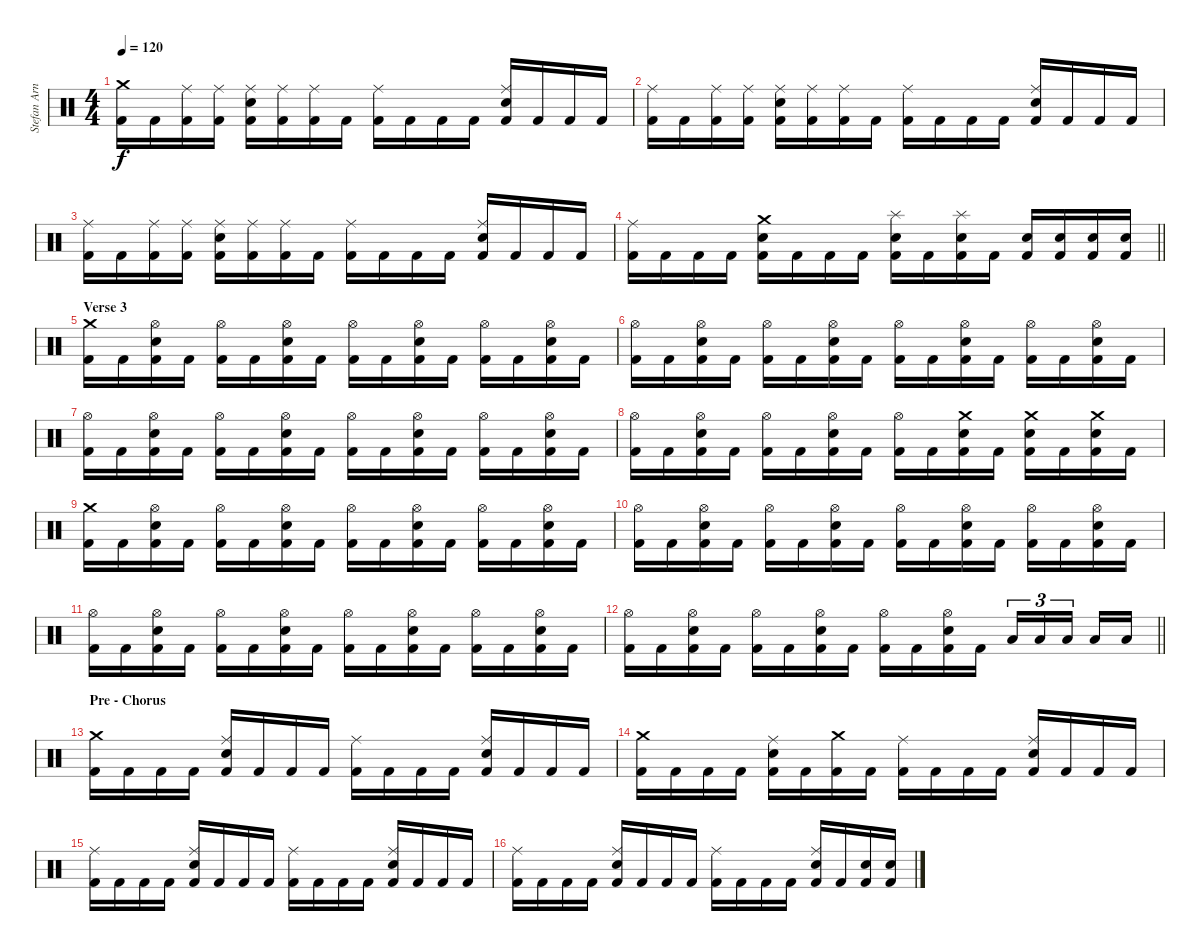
\track ("Stefan Arnold" "Stefan Arn") {instrument percussion}
\staff {score}
\articulation defaults
\ts (4 4)
\tempo 120
\clef neutral
\ks c
("Crash medium (hit)" "Kick (hit) 2").16{dy f} "Kick (hit) 2".16 ("Ride (middle)" "Kick (hit) 2").16 ("Ride (middle)" "Kick (hit) 2").16 ("Ride (middle)" "Electric Snare (hit)" "Kick (hit) 2").16 ("Ride (middle)" "Kick (hit) 2").16 ("Ride (middle)" "Kick (hit) 2").16 "Kick (hit) 2".16 ("Ride (middle)" "Kick (hit) 2").16 "Kick (hit) 2".16 "Kick (hit) 2".16 "Kick (hit) 2".16 ("Ride (middle)" "Electric Snare (hit)" "Kick (hit) 2").16 "Kick (hit) 2".16 "Kick (hit) 2".16 "Kick (hit) 2".16 |
("Ride (middle)" "Kick (hit) 2").16 "Kick (hit) 2".16 ("Ride (middle)" "Kick (hit) 2").16 ("Ride (middle)" "Kick (hit) 2").16 ("Ride (middle)" "Electric Snare (hit)" "Kick (hit) 2").16 ("Ride (middle)" "Kick (hit) 2").16 ("Ride (middle)" "Kick (hit) 2").16 "Kick (hit) 2".16 ("Ride (middle)" "Kick (hit) 2").16 "Kick (hit) 2".16 "Kick (hit) 2".16 "Kick (hit) 2".16 ("Ride (middle)" "Electric Snare (hit)" "Kick (hit) 2").16 "Kick (hit) 2".16 "Kick (hit) 2".16 "Kick (hit) 2".16 |
("Ride (middle)" "Kick (hit) 2").16 "Kick (hit) 2".16 ("Ride (middle)" "Kick (hit) 2").16 ("Ride (middle)" "Kick (hit) 2").16 ("Ride (middle)" "Electric Snare (hit)" "Kick (hit) 2").16 ("Ride (middle)" "Kick (hit) 2").16 ("Ride (middle)" "Kick (hit) 2").16 "Kick (hit) 2".16 ("Ride (middle)" "Kick (hit) 2").16 "Kick (hit) 2".16 "Kick (hit) 2".16 "Kick (hit) 2".16 ("Ride (middle)" "Electric Snare (hit)" "Kick (hit) 2").16 "Kick (hit) 2".16 "Kick (hit) 2".16 "Kick (hit) 2".16 |
\barLineRight lightlight
("Ride (middle)" "Kick (hit) 2").16 "Kick (hit) 2".16 "Kick (hit) 2".16 "Kick (hit) 2".16 ("Crash medium (hit)" "Electric Snare (hit)" "Kick (hit) 2").16 "Kick (hit) 2".16 "Kick (hit) 2".16 "Kick (hit) 2".16 ("Splash (hit)" "Electric Snare (hit)" "Kick (hit) 2").16 "Kick (hit) 2".16 ("Splash (hit)" "Electric Snare (hit)" "Kick (hit) 2").16 "Kick (hit) 2".16 ("Electric Snare (hit)" "Kick (hit) 2").16 ("Electric Snare (hit)" "Kick (hit) 2").16 ("Electric Snare (hit)" "Kick (hit) 2").16 ("Electric Snare (hit)" "Kick (hit) 2").16 |
\section ("" "Verse 3")
("Crash medium (hit)" "Kick (hit) 2").16 "Kick (hit) 2".16 ("Hi-Hat (open)" "Electric Snare (hit)" "Kick (hit) 2").16 "Kick (hit) 2".16 ("Hi-Hat (open)" "Kick (hit) 2").16 "Kick (hit) 2".16 ("Hi-Hat (open)" "Electric Snare (hit)" "Kick (hit) 2").16 "Kick (hit) 2".16 ("Hi-Hat (open)" "Kick (hit) 2").16 "Kick (hit) 2".16 ("Hi-Hat (open)" "Electric Snare (hit)" "Kick (hit) 2").16 "Kick (hit) 2".16 ("Hi-Hat (open)" "Kick (hit) 2").16 "Kick (hit) 2".16 ("Hi-Hat (open)" "Electric Snare (hit)" "Kick (hit) 2").16 "Kick (hit) 2".16 |
("Hi-Hat (open)" "Kick (hit) 2").16 "Kick (hit) 2".16 ("Hi-Hat (open)" "Electric Snare (hit)" "Kick (hit) 2").16 "Kick (hit) 2".16 ("Hi-Hat (open)" "Kick (hit) 2").16 "Kick (hit) 2".16 ("Hi-Hat (open)" "Electric Snare (hit)" "Kick (hit) 2").16 "Kick (hit) 2".16 ("Hi-Hat (open)" "Kick (hit) 2").16 "Kick (hit) 2".16 ("Hi-Hat (open)" "Electric Snare (hit)" "Kick (hit) 2").16 "Kick (hit) 2".16 ("Hi-Hat (open)" "Kick (hit) 2").16 "Kick (hit) 2".16 ("Hi-Hat (open)" "Electric Snare (hit)" "Kick (hit) 2").16 "Kick (hit) 2".16 |
("Hi-Hat (open)" "Kick (hit) 2").16 "Kick (hit) 2".16 ("Hi-Hat (open)" "Electric Snare (hit)" "Kick (hit) 2").16 "Kick (hit) 2".16 ("Hi-Hat (open)" "Kick (hit) 2").16 "Kick (hit) 2".16 ("Hi-Hat (open)" "Electric Snare (hit)" "Kick (hit) 2").16 "Kick (hit) 2".16 ("Hi-Hat (open)" "Kick (hit) 2").16 "Kick (hit) 2".16 ("Hi-Hat (open)" "Electric Snare (hit)" "Kick (hit) 2").16 "Kick (hit) 2".16 ("Hi-Hat (open)" "Kick (hit) 2").16 "Kick (hit) 2".16 ("Hi-Hat (open)" "Electric Snare (hit)" "Kick (hit) 2").16 "Kick (hit) 2".16 |
("Hi-Hat (open)" "Kick (hit) 2").16 "Kick (hit) 2".16 ("Hi-Hat (open)" "Electric Snare (hit)" "Kick (hit) 2").16 "Kick (hit) 2".16 ("Hi-Hat (open)" "Kick (hit) 2").16 "Kick (hit) 2".16 ("Hi-Hat (open)" "Electric Snare (hit)" "Kick (hit) 2").16 "Kick (hit) 2".16 ("Hi-Hat (open)" "Kick (hit) 2").16 "Kick (hit) 2".16 ("Crash medium (hit)" "Electric Snare (hit)" "Kick (hit) 2").16 "Kick (hit) 2".16 ("Crash medium (hit)" "Electric Snare (hit)" "Kick (hit) 2").16 "Kick (hit) 2".16 ("Crash medium (hit)" "Electric Snare (hit)" "Kick (hit) 2").16 "Kick (hit) 2".16 |
("Crash medium (hit)" "Kick (hit) 2").16 "Kick (hit) 2".16 ("Hi-Hat (open)" "Electric Snare (hit)" "Kick (hit) 2").16 "Kick (hit) 2".16 ("Hi-Hat (open)" "Kick (hit) 2").16 "Kick (hit) 2".16 ("Hi-Hat (open)" "Electric Snare (hit)" "Kick (hit) 2").16 "Kick (hit) 2".16 ("Hi-Hat (open)" "Kick (hit) 2").16 "Kick (hit) 2".16 ("Hi-Hat (open)" "Electric Snare (hit)" "Kick (hit) 2").16 "Kick (hit) 2".16 ("Hi-Hat (open)" "Kick (hit) 2").16 "Kick (hit) 2".16 ("Hi-Hat (open)" "Electric Snare (hit)" "Kick (hit) 2").16 "Kick (hit) 2".16 |
("Hi-Hat (open)" "Kick (hit) 2").16 "Kick (hit) 2".16 ("Hi-Hat (open)" "Electric Snare (hit)" "Kick (hit) 2").16 "Kick (hit) 2".16 ("Hi-Hat (open)" "Kick (hit) 2").16 "Kick (hit) 2".16 ("Hi-Hat (open)" "Electric Snare (hit)" "Kick (hit) 2").16 "Kick (hit) 2".16 ("Hi-Hat (open)" "Kick (hit) 2").16 "Kick (hit) 2".16 ("Hi-Hat (open)" "Electric Snare (hit)" "Kick (hit) 2").16 "Kick (hit) 2".16 ("Hi-Hat (open)" "Kick (hit) 2").16 "Kick (hit) 2".16 ("Hi-Hat (open)" "Electric Snare (hit)" "Kick (hit) 2").16 "Kick (hit) 2".16 |
("Hi-Hat (open)" "Kick (hit) 2").16 "Kick (hit) 2".16 ("Hi-Hat (open)" "Electric Snare (hit)" "Kick (hit) 2").16 "Kick (hit) 2".16 ("Hi-Hat (open)" "Kick (hit) 2").16 "Kick (hit) 2".16 ("Hi-Hat (open)" "Electric Snare (hit)" "Kick (hit) 2").16 "Kick (hit) 2".16 ("Hi-Hat (open)" "Kick (hit) 2").16 "Kick (hit) 2".16 ("Hi-Hat (open)" "Electric Snare (hit)" "Kick (hit) 2").16 "Kick (hit) 2".16 ("Hi-Hat (open)" "Kick (hit) 2").16 "Kick (hit) 2".16 ("Hi-Hat (open)" "Electric Snare (hit)" "Kick (hit) 2").16 "Kick (hit) 2".16 |
\barLineRight lightlight
("Hi-Hat (open)" "Kick (hit) 2").16 "Kick (hit) 2".16 ("Hi-Hat (open)" "Electric Snare (hit)" "Kick (hit) 2").16 "Kick (hit) 2".16 ("Hi-Hat (open)" "Kick (hit) 2").16 "Kick (hit) 2".16 ("Hi-Hat (open)" "Electric Snare (hit)" "Kick (hit) 2").16 "Kick (hit) 2".16 ("Hi-Hat (open)" "Kick (hit) 2").16 "Kick (hit) 2".16 ("Hi-Hat (open)" "Electric Snare (hit)" "Kick (hit) 2").16 "Kick (hit) 2".16 "Low Tom (hit)".16{tu (3 2)} "Low Tom (hit)".16{tu (3 2)} "Low Tom (hit)".16{tu (3 2) beam splitsecondary} "Low Tom (hit)".16 "Low Tom (hit)".16 |
\section ("" "Pre - Chorus")
("Crash medium (hit)" "Kick (hit) 2").16 "Kick (hit) 2".16 "Kick (hit) 2".16 "Kick (hit) 2".16 ("Ride (middle)" "Electric Snare (hit)" "Kick (hit) 2").16 "Kick (hit) 2".16 "Kick (hit) 2".16 "Kick (hit) 2".16 ("Ride (middle)" "Kick (hit) 2").16 "Kick (hit) 2".16 "Kick (hit) 2".16 "Kick (hit) 2".16 ("Ride (middle)" "Electric Snare (hit)" "Kick (hit) 2").16 "Kick (hit) 2".16 "Kick (hit) 2".16 "Kick (hit) 2".16 |
("Crash medium (hit)" "Kick (hit) 2").16 "Kick (hit) 2".16 "Kick (hit) 2".16 "Kick (hit) 2".16 ("Ride (middle)" "Electric Snare (hit)" "Kick (hit) 2").16 "Kick (hit) 2".16 ("Crash medium (hit)" "Kick (hit) 2").16 "Kick (hit) 2".16 ("Ride (middle)" "Kick (hit) 2").16 "Kick (hit) 2".16 "Kick (hit) 2".16 "Kick (hit) 2".16 ("Ride (middle)" "Electric Snare (hit)" "Kick (hit) 2").16 "Kick (hit) 2".16 "Kick (hit) 2".16 "Kick (hit) 2".16 |
("Ride (middle)" "Kick (hit) 2").16 "Kick (hit) 2".16 "Kick (hit) 2".16 "Kick (hit) 2".16 ("Ride (middle)" "Electric Snare (hit)" "Kick (hit) 2").16 "Kick (hit) 2".16 "Kick (hit) 2".16 "Kick (hit) 2".16 ("Ride (middle)" "Kick (hit) 2").16 "Kick (hit) 2".16 "Kick (hit) 2".16 "Kick (hit) 2".16 ("Ride (middle)" "Electric Snare (hit)" "Kick (hit) 2").16 "Kick (hit) 2".16 "Kick (hit) 2".16 "Kick (hit) 2".16 |
("Ride (middle)" "Kick (hit) 2").16 "Kick (hit) 2".16 "Kick (hit) 2".16 "Kick (hit) 2".16 ("Ride (middle)" "Electric Snare (hit)" "Kick (hit) 2").16 "Kick (hit) 2".16 "Kick (hit) 2".16 "Kick (hit) 2".16 ("Ride (middle)" "Kick (hit) 2").16 "Kick (hit) 2".16 "Kick (hit) 2".16 "Kick (hit) 2".16 ("Ride (middle)" "Electric Snare (hit)" "Kick (hit) 2").16 "Kick (hit) 2".16 ("Electric Snare (hit)" "Kick (hit) 2").16 ("Electric Snare (hit)" "Kick (hit) 2").16
